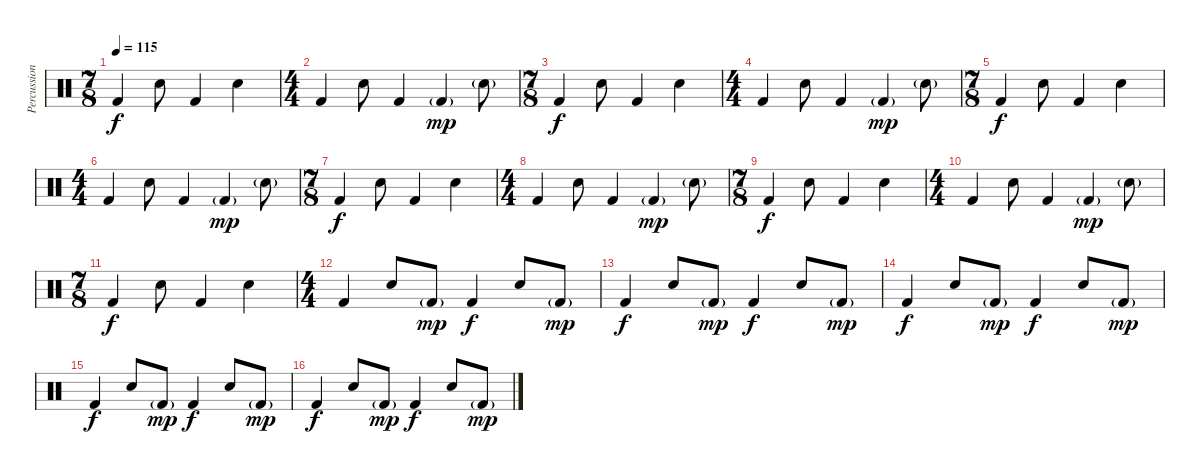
\track ("Percussion" "Percussion") {instrument percussion}
\staff {score}
\articulation defaults
\ts (7 8)
\tempo 115
\clef neutral
\ks c "Kick (hit) 2".4{dy f} "Snare (hit) 2".8 "Kick (hit) 2".4 "Snare (hit) 2".4
|
\ts (4 4)
"Kick (hit) 2".4 "Snare (hit) 2".8 "Kick (hit) 2".4 "Kick (hit) 2"{g}.4{dy mp} "Snare (hit) 2"{g}.8 |
\ts (7 8)
"Kick (hit) 2".4{dy f} "Snare (hit) 2".8 "Kick (hit) 2".4 "Snare (hit) 2".4 |
\ts (4 4)
"Kick (hit) 2".4 "Snare (hit) 2".8 "Kick (hit) 2".4 "Kick (hit) 2"{g}.4{dy mp} "Snare (hit) 2"{g}.8 |
\ts (7 8)
"Kick (hit) 2".4{dy f} "Snare (hit) 2".8 "Kick (hit) 2".4 "Snare (hit) 2".4 |
\ts (4 4)
"Kick (hit) 2".4 "Snare (hit) 2".8 "Kick (hit) 2".4 "Kick (hit) 2"{g}.4{dy mp} "Snare (hit) 2"{g}.8 |
\ts (7 8)
"Kick (hit) 2".4{dy f} "Snare (hit) 2".8 "Kick (hit) 2".4 "Snare (hit) 2".4 |
\ts (4 4)
"Kick (hit) 2".4 "Snare (hit) 2".8 "Kick (hit) 2".4 "Kick (hit) 2"{g}.4{dy mp} "Snare (hit) 2"{g}.8 |
\ts (7 8)
"Kick (hit) 2".4{dy f} "Snare (hit) 2".8 "Kick (hit) 2".4 "Snare (hit) 2".4 |
\ts (4 4)
"Kick (hit) 2".4 "Snare (hit) 2".8 "Kick (hit) 2".4 "Kick (hit) 2"{g}.4{dy mp} "Snare (hit) 2"{g}.8 |
\ts (7 8)
"Kick (hit) 2".4{dy f} "Snare (hit) 2".8 "Kick (hit) 2".4 "Snare (hit) 2".4 |
\ts (4 4)
"Kick (hit) 2".4 "Snare (hit) 2".8 "Kick (hit) 2"{g}.8{dy mp} "Kick (hit) 2".4{dy f} "Snare (hit) 2".8 "Kick (hit) 2"{g}.8{dy mp} |
"Kick (hit) 2".4{dy f} "Snare (hit) 2".8 "Kick (hit) 2"{g}.8{dy mp} "Kick (hit) 2".4{dy f} "Snare (hit) 2".8 "Kick (hit) 2"{g}.8{dy mp} |
"Kick (hit) 2".4{dy f} "Snare (hit) 2".8 "Kick (hit) 2"{g}.8{dy mp} "Kick (hit) 2".4{dy f} "Snare (hit) 2".8 "Kick (hit) 2"{g}.8{dy mp} |
"Kick (hit) 2".4{dy f} "Snare (hit) 2".8 "Kick (hit) 2"{g}.8{dy mp} "Kick (hit) 2".4{dy f} "Snare (hit) 2".8 "Kick (hit) 2"{g}.8{dy mp} |
"Kick (hit) 2".4{dy f} "Snare (hit) 2".8 "Kick (hit) 2"{g}.8{dy mp} "Kick (hit) 2".4{dy f} "Snare (hit) 2".8 "Kick (hit) 2"{g}.8{dy mp}
